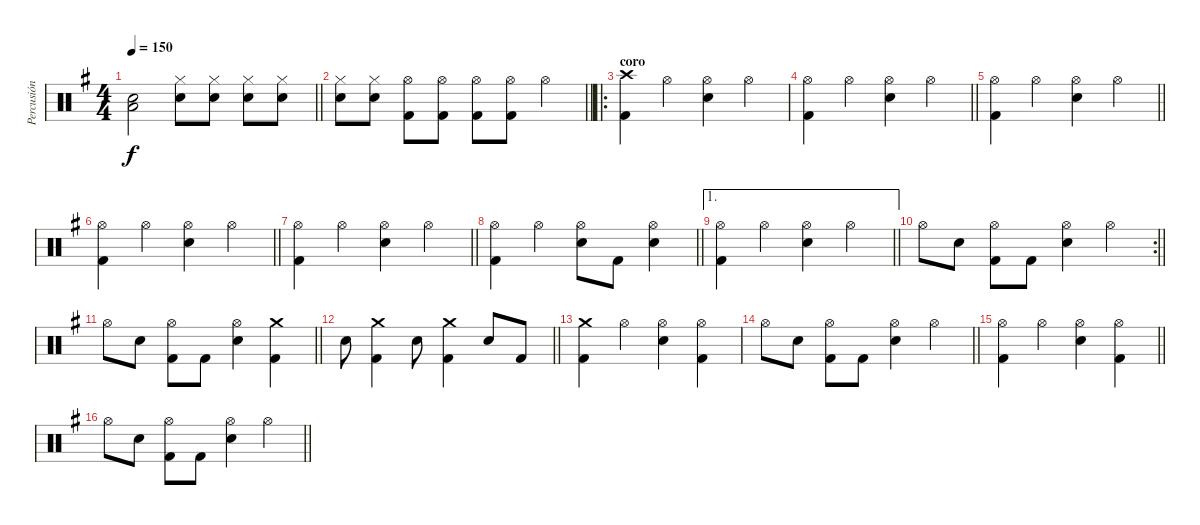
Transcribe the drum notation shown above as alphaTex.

\track ("Percusión" "Percusión") {instrument percussion}
\staff {score}
\articulation defaults
\ts (4 4)
\tempo 150
\clef neutral
\barLineRight lightlight
\ks eminor
("Electric Snare (hit)" "Low Floor Tom (hit)").2{dy f} ("Electric Snare (hit)" "Hi-Hat (closed)").8 ("Electric Snare (hit)" "Hi-Hat (closed)").8 ("Electric Snare (hit)" "Hi-Hat (closed)").8 ("Electric Snare (hit)" "Hi-Hat (closed)").8 |
\barLineRight lightlight
("Electric Snare (hit)" "Hi-Hat (closed)").8 ("Electric Snare (hit)" "Hi-Hat (closed)").8 ("Hi-Hat (open)" "Kick (hit) 2").8 ("Hi-Hat (open)" "Kick (hit) 2").8 ("Hi-Hat (open)" "Kick (hit) 2").8 ("Hi-Hat (open)" "Kick (hit) 2").8 "Hi-Hat (open)".4 |
\ro
\section ("" "coro")
("Crash high (hit)" "Kick (hit) 2").4 "Hi-Hat (open)".4 ("Hi-Hat (open)" "Electric Snare (hit)").4 "Hi-Hat (open)".4 |
\barLineRight lightlight
("Hi-Hat (open)" "Kick (hit) 2").4 "Hi-Hat (open)".4 ("Hi-Hat (open)" "Electric Snare (hit)").4 "Hi-Hat (open)".4 |
\barLineRight lightlight
("Hi-Hat (open)" "Kick (hit) 2").4 "Hi-Hat (open)".4 ("Hi-Hat (open)" "Electric Snare (hit)").4 "Hi-Hat (open)".4 |
\barLineRight lightlight
("Hi-Hat (open)" "Kick (hit) 2").4 "Hi-Hat (open)".4 ("Hi-Hat (open)" "Electric Snare (hit)").4 "Hi-Hat (open)".4 |
\barLineRight lightlight
("Hi-Hat (open)" "Kick (hit) 2").4 "Hi-Hat (open)".4 ("Hi-Hat (open)" "Electric Snare (hit)").4 "Hi-Hat (open)".4 |
\barLineRight lightlight
("Hi-Hat (open)" "Kick (hit) 2").4 "Hi-Hat (open)".4 ("Hi-Hat (open)" "Electric Snare (hit)").8 "Kick (hit) 2".8 ("Hi-Hat (open)" "Electric Snare (hit)").4 |
\ae 1
\barLineRight lightlight
("Hi-Hat (open)" "Kick (hit) 2").4 "Hi-Hat (open)".4 ("Hi-Hat (open)" "Electric Snare (hit)").4 "Hi-Hat (open)".4 |
\rc 2
\barLineRight lightlight "Hi-Hat (open)".8 "Electric Snare (hit)".8
("Hi-Hat (open)" "Kick (hit) 2").8 "Kick (hit) 2".8 ("Hi-Hat (open)" "Electric Snare (hit)").4 "Hi-Hat (open)".4 |
\barLineRight lightlight "Hi-Hat (open)".8 "Electric Snare (hit)".8
("Hi-Hat (open)" "Kick (hit) 2").8 "Kick (hit) 2".8 ("Hi-Hat (open)" "Electric Snare (hit)").4 ("Crash medium (hit)" "Kick (hit) 2").4 |
\barLineRight lightlight "Electric Snare (hit)".8
("Crash medium (hit)" "Kick (hit) 2").4 "Electric Snare (hit)".8 ("Crash medium (hit)" "Kick (hit) 2").4 "Electric Snare (hit)".8 "Kick (hit) 2".8 |
("Crash medium (hit)" "Kick (hit) 2").4 "Hi-Hat (open)".4 ("Hi-Hat (open)" "Electric Snare (hit)").4 ("Hi-Hat (open)" "Kick (hit) 2").4 |
\barLineRight lightlight "Hi-Hat (open)".8 "Electric Snare (hit)".8
("Hi-Hat (open)" "Kick (hit) 2").8 "Kick (hit) 2".8 ("Hi-Hat (open)" "Electric Snare (hit)").4 "Hi-Hat (open)".4 |
\barLineRight lightlight
("Hi-Hat (open)" "Kick (hit) 2").4 "Hi-Hat (open)".4 ("Hi-Hat (open)" "Electric Snare (hit)").4 ("Hi-Hat (open)" "Kick (hit) 2").4 |
\barLineRight lightlight "Hi-Hat (open)".8 "Electric Snare (hit)".8
("Hi-Hat (open)" "Kick (hit) 2").8 "Kick (hit) 2".8 ("Hi-Hat (open)" "Electric Snare (hit)").4 "Hi-Hat (open)".4
